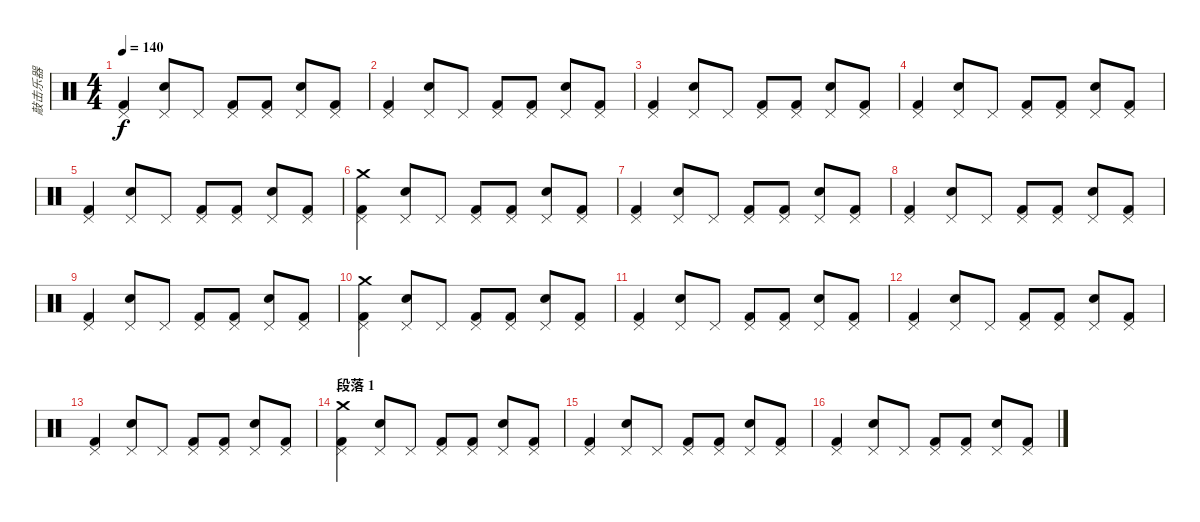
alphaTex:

\track ("敲击乐器" "敲击乐器") {instrument percussion}
\staff {score}
\articulation defaults
\ts (4 4)
\tempo 140
\clef neutral
\ks c
("Kick (hit) 2" "Pedal Hi-Hat (hit)").4{dy f} ("Snare (hit) 2" "Pedal Hi-Hat (hit)").8 "Pedal Hi-Hat (hit)".8 ("Kick (hit) 2" "Pedal Hi-Hat (hit)").8 ("Kick (hit) 2" "Pedal Hi-Hat (hit)").8 ("Snare (hit) 2" "Pedal Hi-Hat (hit)").8 ("Kick (hit) 2" "Pedal Hi-Hat (hit)").8 |
("Kick (hit) 2" "Pedal Hi-Hat (hit)").4 ("Snare (hit) 2" "Pedal Hi-Hat (hit)").8 "Pedal Hi-Hat (hit)".8 ("Kick (hit) 2" "Pedal Hi-Hat (hit)").8 ("Kick (hit) 2" "Pedal Hi-Hat (hit)").8 ("Snare (hit) 2" "Pedal Hi-Hat (hit)").8 ("Kick (hit) 2" "Pedal Hi-Hat (hit)").8 |
("Kick (hit) 2" "Pedal Hi-Hat (hit)").4 ("Snare (hit) 2" "Pedal Hi-Hat (hit)").8 "Pedal Hi-Hat (hit)".8 ("Kick (hit) 2" "Pedal Hi-Hat (hit)").8 ("Kick (hit) 2" "Pedal Hi-Hat (hit)").8 ("Snare (hit) 2" "Pedal Hi-Hat (hit)").8 ("Kick (hit) 2" "Pedal Hi-Hat (hit)").8 |
("Kick (hit) 2" "Pedal Hi-Hat (hit)").4 ("Snare (hit) 2" "Pedal Hi-Hat (hit)").8 "Pedal Hi-Hat (hit)".8 ("Kick (hit) 2" "Pedal Hi-Hat (hit)").8 ("Kick (hit) 2" "Pedal Hi-Hat (hit)").8 ("Snare (hit) 2" "Pedal Hi-Hat (hit)").8 ("Kick (hit) 2" "Pedal Hi-Hat (hit)").8 |
("Kick (hit) 2" "Pedal Hi-Hat (hit)").4 ("Snare (hit) 2" "Pedal Hi-Hat (hit)").8 "Pedal Hi-Hat (hit)".8 ("Kick (hit) 2" "Pedal Hi-Hat (hit)").8 ("Kick (hit) 2" "Pedal Hi-Hat (hit)").8 ("Snare (hit) 2" "Pedal Hi-Hat (hit)").8 ("Kick (hit) 2" "Pedal Hi-Hat (hit)").8 |
("Kick (hit) 2" "Pedal Hi-Hat (hit)" "Crash medium (hit)").4 ("Snare (hit) 2" "Pedal Hi-Hat (hit)").8 "Pedal Hi-Hat (hit)".8 ("Kick (hit) 2" "Pedal Hi-Hat (hit)").8 ("Kick (hit) 2" "Pedal Hi-Hat (hit)").8 ("Snare (hit) 2" "Pedal Hi-Hat (hit)").8 ("Kick (hit) 2" "Pedal Hi-Hat (hit)").8 |
("Kick (hit) 2" "Pedal Hi-Hat (hit)").4 ("Snare (hit) 2" "Pedal Hi-Hat (hit)").8 "Pedal Hi-Hat (hit)".8 ("Kick (hit) 2" "Pedal Hi-Hat (hit)").8 ("Kick (hit) 2" "Pedal Hi-Hat (hit)").8 ("Snare (hit) 2" "Pedal Hi-Hat (hit)").8 ("Kick (hit) 2" "Pedal Hi-Hat (hit)").8 |
("Kick (hit) 2" "Pedal Hi-Hat (hit)").4 ("Snare (hit) 2" "Pedal Hi-Hat (hit)").8 "Pedal Hi-Hat (hit)".8 ("Kick (hit) 2" "Pedal Hi-Hat (hit)").8 ("Kick (hit) 2" "Pedal Hi-Hat (hit)").8 ("Snare (hit) 2" "Pedal Hi-Hat (hit)").8 ("Kick (hit) 2" "Pedal Hi-Hat (hit)").8 |
("Kick (hit) 2" "Pedal Hi-Hat (hit)").4 ("Snare (hit) 2" "Pedal Hi-Hat (hit)").8 "Pedal Hi-Hat (hit)".8 ("Kick (hit) 2" "Pedal Hi-Hat (hit)").8 ("Kick (hit) 2" "Pedal Hi-Hat (hit)").8 ("Snare (hit) 2" "Pedal Hi-Hat (hit)").8 ("Kick (hit) 2" "Pedal Hi-Hat (hit)").8 |
("Kick (hit) 2" "Pedal Hi-Hat (hit)" "Crash medium (hit)").4 ("Snare (hit) 2" "Pedal Hi-Hat (hit)").8 "Pedal Hi-Hat (hit)".8 ("Kick (hit) 2" "Pedal Hi-Hat (hit)").8 ("Kick (hit) 2" "Pedal Hi-Hat (hit)").8 ("Snare (hit) 2" "Pedal Hi-Hat (hit)").8 ("Kick (hit) 2" "Pedal Hi-Hat (hit)").8 |
("Kick (hit) 2" "Pedal Hi-Hat (hit)").4 ("Snare (hit) 2" "Pedal Hi-Hat (hit)").8 "Pedal Hi-Hat (hit)".8 ("Kick (hit) 2" "Pedal Hi-Hat (hit)").8 ("Kick (hit) 2" "Pedal Hi-Hat (hit)").8 ("Snare (hit) 2" "Pedal Hi-Hat (hit)").8 ("Kick (hit) 2" "Pedal Hi-Hat (hit)").8 |
("Kick (hit) 2" "Pedal Hi-Hat (hit)").4 ("Snare (hit) 2" "Pedal Hi-Hat (hit)").8 "Pedal Hi-Hat (hit)".8 ("Kick (hit) 2" "Pedal Hi-Hat (hit)").8 ("Kick (hit) 2" "Pedal Hi-Hat (hit)").8 ("Snare (hit) 2" "Pedal Hi-Hat (hit)").8 ("Kick (hit) 2" "Pedal Hi-Hat (hit)").8 |
("Kick (hit) 2" "Pedal Hi-Hat (hit)").4 ("Snare (hit) 2" "Pedal Hi-Hat (hit)").8 "Pedal Hi-Hat (hit)".8 ("Kick (hit) 2" "Pedal Hi-Hat (hit)").8 ("Kick (hit) 2" "Pedal Hi-Hat (hit)").8 ("Snare (hit) 2" "Pedal Hi-Hat (hit)").8 ("Kick (hit) 2" "Pedal Hi-Hat (hit)").8 |
\section ("" "段落 1")
("Kick (hit) 2" "Pedal Hi-Hat (hit)" "Crash medium (hit)").4 ("Snare (hit) 2" "Pedal Hi-Hat (hit)").8 "Pedal Hi-Hat (hit)".8 ("Kick (hit) 2" "Pedal Hi-Hat (hit)").8 ("Kick (hit) 2" "Pedal Hi-Hat (hit)").8 ("Snare (hit) 2" "Pedal Hi-Hat (hit)").8 ("Kick (hit) 2" "Pedal Hi-Hat (hit)").8 |
("Kick (hit) 2" "Pedal Hi-Hat (hit)").4 ("Snare (hit) 2" "Pedal Hi-Hat (hit)").8 "Pedal Hi-Hat (hit)".8 ("Kick (hit) 2" "Pedal Hi-Hat (hit)").8 ("Kick (hit) 2" "Pedal Hi-Hat (hit)").8 ("Snare (hit) 2" "Pedal Hi-Hat (hit)").8 ("Kick (hit) 2" "Pedal Hi-Hat (hit)").8 |
("Kick (hit) 2" "Pedal Hi-Hat (hit)").4 ("Snare (hit) 2" "Pedal Hi-Hat (hit)").8 "Pedal Hi-Hat (hit)".8 ("Kick (hit) 2" "Pedal Hi-Hat (hit)").8 ("Kick (hit) 2" "Pedal Hi-Hat (hit)").8 ("Snare (hit) 2" "Pedal Hi-Hat (hit)").8 ("Kick (hit) 2" "Pedal Hi-Hat (hit)").8
